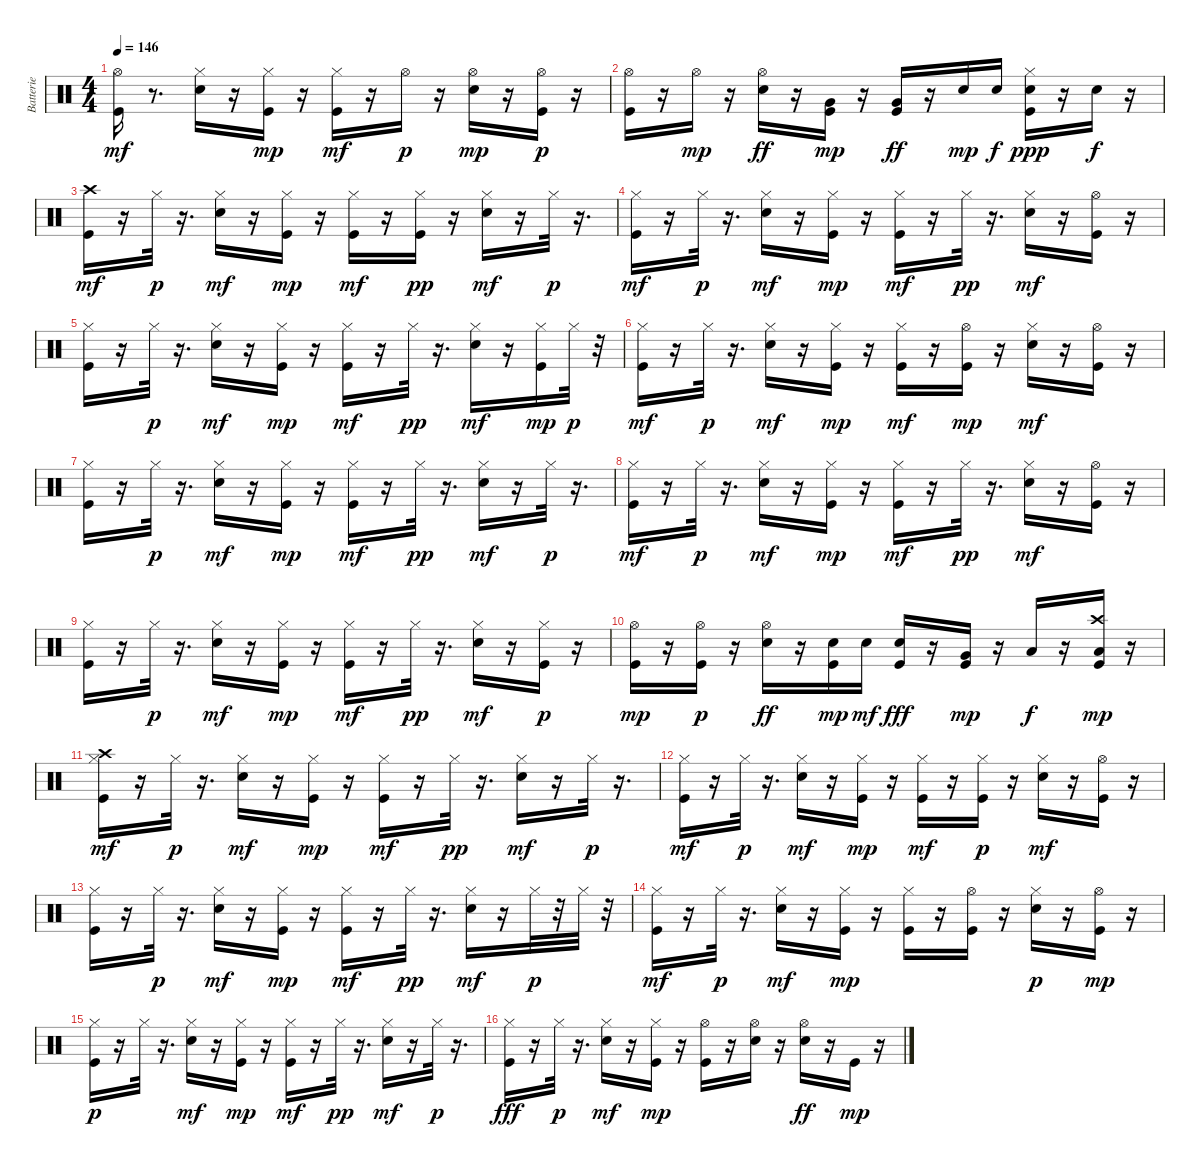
\track ("Batterie" "Batterie") {instrument percussion}
\staff {score}
\articulation defaults
\ts (4 4)
\tempo 146
\clef neutral
\ks c
("Kick (hit)" "Hi-Hat (open)").16{dy mf} r.8{d} ("Electric Snare (hit)" "Hi-Hat (closed)").16 r.16 ("Kick (hit)" "Hi-Hat (closed)").16{dy mp} r.16 ("Kick (hit)" "Hi-Hat (closed)").16{dy mf} r.16 "Hi-Hat (open)".16{dy p} r.16 ("Electric Snare (hit)" "Hi-Hat (open)").16{dy mp} r.16 ("Kick (hit)" "Hi-Hat (open)").16{dy p} r.16 |
("Kick (hit)" "Hi-Hat (open)").16 r.16 "Hi-Hat (open)".16{dy mp} r.16 ("Electric Snare (hit)" "Hi-Hat (open)").16{dy ff} r.16 ("Kick (hit)" "Very Low Tom (hit)").16{dy mp} r.16 ("Kick (hit)" "Very Low Tom (hit)").16{dy ff} r.16 "Electric Snare (hit)".16{dy mp} "Electric Snare (hit)".16{dy f} ("Kick (hit)" "Electric Snare (hit)" "Hi-Hat (closed)").16{dy ppp} r.16 "Electric Snare (hit)".16{dy f} r.16 |
("Kick (hit)" "Crash high (hit)").16{dy mf} r.16 "Hi-Hat (closed)".32{dy p} r.16{d} ("Electric Snare (hit)" "Hi-Hat (closed)").16{dy mf} r.16 ("Kick (hit)" "Hi-Hat (closed)").16{dy mp} r.16 ("Kick (hit)" "Hi-Hat (closed)").16{dy mf} r.16 ("Kick (hit)" "Hi-Hat (closed)").16{dy pp} r.16 ("Electric Snare (hit)" "Hi-Hat (closed)").16{dy mf} r.16 "Hi-Hat (closed)".32{dy p} r.16{d} |
("Kick (hit)" "Hi-Hat (closed)").16{dy mf} r.16 "Hi-Hat (closed)".32{dy p} r.16{d} ("Electric Snare (hit)" "Hi-Hat (closed)").16{dy mf} r.16 ("Kick (hit)" "Hi-Hat (closed)").16{dy mp} r.16 ("Kick (hit)" "Hi-Hat (closed)").16{dy mf} r.16 "Hi-Hat (closed)".32{dy pp} r.16{d} ("Electric Snare (hit)" "Hi-Hat (closed)").16{dy mf} r.16 ("Kick (hit)" "Hi-Hat (open)").16 r.16 |
("Kick (hit)" "Hi-Hat (closed)").16 r.16 "Hi-Hat (closed)".32{dy p} r.16{d} ("Electric Snare (hit)" "Hi-Hat (closed)").16{dy mf} r.16 ("Kick (hit)" "Hi-Hat (closed)").16{dy mp} r.16 ("Kick (hit)" "Hi-Hat (closed)").16{dy mf} r.16 "Hi-Hat (closed)".32{dy pp} r.16{d} ("Electric Snare (hit)" "Hi-Hat (closed)").16{dy mf} r.16 ("Kick (hit)" "Hi-Hat (closed)").16{dy mp} "Hi-Hat (closed)".32{dy p} r.32 |
("Kick (hit)" "Hi-Hat (closed)").16{dy mf} r.16 "Hi-Hat (closed)".32{dy p} r.16{d} ("Electric Snare (hit)" "Hi-Hat (closed)").16{dy mf} r.16 ("Kick (hit)" "Hi-Hat (closed)").16{dy mp} r.16 ("Kick (hit)" "Hi-Hat (closed)").16{dy mf} r.16 ("Kick (hit)" "Hi-Hat (open)").16{dy mp} r.16 ("Electric Snare (hit)" "Hi-Hat (closed)").16{dy mf} r.16 ("Kick (hit)" "Hi-Hat (open)").16 r.16 |
("Kick (hit)" "Hi-Hat (closed)").16 r.16 "Hi-Hat (closed)".32{dy p} r.16{d} ("Electric Snare (hit)" "Hi-Hat (closed)").16{dy mf} r.16 ("Kick (hit)" "Hi-Hat (closed)").16{dy mp} r.16 ("Kick (hit)" "Hi-Hat (closed)").16{dy mf} r.16 "Hi-Hat (closed)".32{dy pp} r.16{d} ("Electric Snare (hit)" "Hi-Hat (closed)").16{dy mf} r.16 "Hi-Hat (closed)".32{dy p} r.16{d} |
("Kick (hit)" "Hi-Hat (closed)").16{dy mf} r.16 "Hi-Hat (closed)".32{dy p} r.16{d} ("Electric Snare (hit)" "Hi-Hat (closed)").16{dy mf} r.16 ("Kick (hit)" "Hi-Hat (closed)").16{dy mp} r.16 ("Kick (hit)" "Hi-Hat (closed)").16{dy mf} r.16 "Hi-Hat (closed)".32{dy pp} r.16{d} ("Electric Snare (hit)" "Hi-Hat (closed)").16{dy mf} r.16 ("Kick (hit)" "Hi-Hat (open)").16 r.16 |
("Kick (hit)" "Hi-Hat (closed)").16 r.16 "Hi-Hat (closed)".32{dy p} r.16{d} ("Electric Snare (hit)" "Hi-Hat (closed)").16{dy mf} r.16 ("Kick (hit)" "Hi-Hat (closed)").16{dy mp} r.16 ("Kick (hit)" "Hi-Hat (closed)").16{dy mf} r.16 "Hi-Hat (closed)".32{dy pp} r.16{d} ("Electric Snare (hit)" "Hi-Hat (closed)").16{dy mf} r.16 ("Kick (hit)" "Hi-Hat (closed)").16{dy p} r.16 |
("Kick (hit)" "Hi-Hat (open)").16{dy mp} r.16 ("Kick (hit)" "Hi-Hat (open)").16{dy p} r.16 ("Electric Snare (hit)" "Hi-Hat (open)").16{dy ff} r.16 ("Kick (hit)" "Electric Snare (hit)").16{dy mp} "Electric Snare (hit)".16{dy mf} ("Kick (hit)" "Electric Snare (hit)").16{dy fff} r.16 ("Kick (hit)" "Very Low Tom (hit)").16{dy mp} r.16 "Low Tom (hit)".16{dy f} r.16 ("Kick (hit)" "Crash high (hit)" "Low Floor Tom (hit)").16{dy mp} r.16 |
("Kick (hit)" "Hi-Hat (closed)" "Crash high (hit)").16{dy mf} r.16 "Hi-Hat (closed)".32{dy p} r.16{d} ("Electric Snare (hit)" "Hi-Hat (closed)").16{dy mf} r.16 ("Kick (hit)" "Hi-Hat (closed)").16{dy mp} r.16 ("Kick (hit)" "Hi-Hat (closed)").16{dy mf} r.16 "Hi-Hat (closed)".32{dy pp} r.16{d} ("Electric Snare (hit)" "Hi-Hat (closed)").16{dy mf} r.16 "Hi-Hat (closed)".32{dy p} r.16{d} |
("Kick (hit)" "Hi-Hat (closed)").16{dy mf} r.16 "Hi-Hat (closed)".32{dy p} r.16{d} ("Electric Snare (hit)" "Hi-Hat (closed)").16{dy mf} r.16 ("Kick (hit)" "Hi-Hat (closed)").16{dy mp} r.16 ("Kick (hit)" "Hi-Hat (closed)").16{dy mf} r.16 ("Kick (hit)" "Hi-Hat (closed)").16{dy p} r.16 ("Electric Snare (hit)" "Hi-Hat (closed)").16{dy mf} r.16 ("Kick (hit)" "Hi-Hat (open)").16 r.16 |
("Kick (hit)" "Hi-Hat (closed)").16 r.16 "Hi-Hat (closed)".32{dy p} r.16{d} ("Electric Snare (hit)" "Hi-Hat (closed)").16{dy mf} r.16 ("Kick (hit)" "Hi-Hat (closed)").16{dy mp} r.16 ("Kick (hit)" "Hi-Hat (closed)").16{dy mf} r.16 "Hi-Hat (closed)".32{dy pp} r.16{d} ("Electric Snare (hit)" "Hi-Hat (closed)").16{dy mf} r.16 "Hi-Hat (closed)".32{dy p} r.32 "Hi-Hat (closed)".32 r.32 |
("Kick (hit)" "Hi-Hat (closed)").16{dy mf} r.16 "Hi-Hat (closed)".32{dy p} r.16{d} ("Electric Snare (hit)" "Hi-Hat (closed)").16{dy mf} r.16 ("Kick (hit)" "Hi-Hat (closed)").16{dy mp} r.16 ("Kick (hit)" "Hi-Hat (closed)").16 r.16 ("Kick (hit)" "Hi-Hat (open)").16 r.16 ("Electric Snare (hit)" "Hi-Hat (closed)").16{dy p} r.16 ("Kick (hit)" "Hi-Hat (open)").16{dy mp} r.16 |
("Kick (hit)" "Hi-Hat (closed)").16{dy p} r.16 "Hi-Hat (closed)".32 r.16{d} ("Electric Snare (hit)" "Hi-Hat (closed)").16{dy mf} r.16 ("Kick (hit)" "Hi-Hat (closed)").16{dy mp} r.16 ("Kick (hit)" "Hi-Hat (closed)").16{dy mf} r.16 "Hi-Hat (closed)".32{dy pp} r.16{d} ("Electric Snare (hit)" "Hi-Hat (closed)").16{dy mf} r.16 "Hi-Hat (closed)".32{dy p} r.16{d} |
("Kick (hit)" "Hi-Hat (closed)").16{dy fff} r.16 "Hi-Hat (closed)".32{dy p} r.16{d} ("Electric Snare (hit)" "Hi-Hat (closed)").16{dy mf} r.16 ("Kick (hit)" "Hi-Hat (closed)").16{dy mp} r.16 ("Kick (hit)" "Hi-Hat (open)").16 r.16 ("Electric Snare (hit)" "Hi-Hat (open)").16 r.16 ("Electric Snare (hit)" "Hi-Hat (open)").16{dy ff} r.16 "Kick (hit)".16{dy mp} r.16
